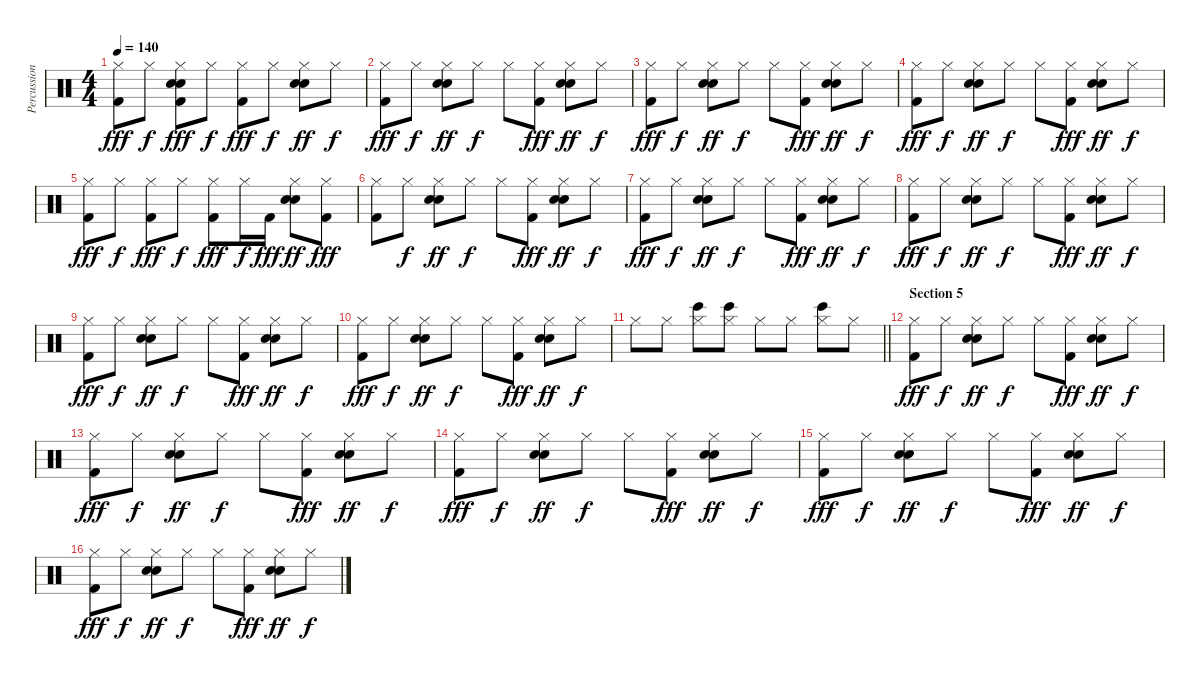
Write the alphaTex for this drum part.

\track ("Percussion" "Percussion") {instrument percussion}
\staff {score}
\articulation defaults
\ts (4 4)
\tempo 140
\clef neutral
\ks c
("Hi-Hat (closed)" "Kick (hit) 2").8{dy fff} "Hi-Hat (closed)".8{dy f} ("Hi-Hat (closed)" "Electric Snare (hit)" "Snare (hit) 2" "Kick (hit) 2").8{dy fff} "Hi-Hat (closed)".8{dy f} ("Hi-Hat (closed)" "Kick (hit) 2").8{dy fff} "Hi-Hat (closed)".8{dy f} ("Hi-Hat (closed)" "Electric Snare (hit)" "Snare (hit) 2").8{dy ff} "Hi-Hat (closed)".8{dy f} |
("Hi-Hat (closed)" "Kick (hit) 2").8{dy fff} "Hi-Hat (closed)".8{dy f} ("Hi-Hat (closed)" "Electric Snare (hit)" "Snare (hit) 2").8{dy ff} "Hi-Hat (closed)".8{dy f} "Hi-Hat (closed)".8 ("Hi-Hat (closed)" "Kick (hit) 2").8{dy fff} ("Hi-Hat (closed)" "Electric Snare (hit)" "Snare (hit) 2").8{dy ff} "Hi-Hat (closed)".8{dy f} |
("Hi-Hat (closed)" "Kick (hit) 2").8{dy fff} "Hi-Hat (closed)".8{dy f} ("Hi-Hat (closed)" "Electric Snare (hit)" "Snare (hit) 2").8{dy ff} "Hi-Hat (closed)".8{dy f} "Hi-Hat (closed)".8 ("Hi-Hat (closed)" "Kick (hit) 2").8{dy fff} ("Hi-Hat (closed)" "Electric Snare (hit)" "Snare (hit) 2").8{dy ff} "Hi-Hat (closed)".8{dy f} |
("Hi-Hat (closed)" "Kick (hit) 2").8{dy fff} "Hi-Hat (closed)".8{dy f} ("Hi-Hat (closed)" "Electric Snare (hit)" "Snare (hit) 2").8{dy ff} "Hi-Hat (closed)".8{dy f} "Hi-Hat (closed)".8 ("Hi-Hat (closed)" "Kick (hit) 2").8{dy fff} ("Hi-Hat (closed)" "Electric Snare (hit)" "Snare (hit) 2").8{dy ff} "Hi-Hat (closed)".8{dy f} |
("Hi-Hat (closed)" "Kick (hit) 2").8{dy fff} "Hi-Hat (closed)".8{dy f} ("Hi-Hat (closed)" "Kick (hit) 2").8{dy fff} "Hi-Hat (closed)".8{dy f} ("Hi-Hat (closed)" "Kick (hit) 2").8{dy fff} "Hi-Hat (closed)".16{dy f} "Kick (hit) 2".16{dy fff} ("Hi-Hat (closed)" "Electric Snare (hit)" "Snare (hit) 2").8{dy ff} ("Hi-Hat (closed)" "Kick (hit) 2").8{dy fff} |
("Hi-Hat (closed)" "Kick (hit) 2").8 "Hi-Hat (closed)".8{dy f} ("Hi-Hat (closed)" "Electric Snare (hit)" "Snare (hit) 2").8{dy ff} "Hi-Hat (closed)".8{dy f} "Hi-Hat (closed)".8 ("Hi-Hat (closed)" "Kick (hit) 2").8{dy fff} ("Hi-Hat (closed)" "Electric Snare (hit)" "Snare (hit) 2").8{dy ff} "Hi-Hat (closed)".8{dy f} |
("Hi-Hat (closed)" "Kick (hit) 2").8{dy fff} "Hi-Hat (closed)".8{dy f} ("Hi-Hat (closed)" "Electric Snare (hit)" "Snare (hit) 2").8{dy ff} "Hi-Hat (closed)".8{dy f} "Hi-Hat (closed)".8 ("Hi-Hat (closed)" "Kick (hit) 2").8{dy fff} ("Hi-Hat (closed)" "Electric Snare (hit)" "Snare (hit) 2").8{dy ff} "Hi-Hat (closed)".8{dy f} |
("Hi-Hat (closed)" "Kick (hit) 2").8{dy fff} "Hi-Hat (closed)".8{dy f} ("Hi-Hat (closed)" "Electric Snare (hit)" "Snare (hit) 2").8{dy ff} "Hi-Hat (closed)".8{dy f} "Hi-Hat (closed)".8 ("Hi-Hat (closed)" "Kick (hit) 2").8{dy fff} ("Hi-Hat (closed)" "Electric Snare (hit)" "Snare (hit) 2").8{dy ff} "Hi-Hat (closed)".8{dy f} |
("Hi-Hat (closed)" "Kick (hit) 2").8{dy fff} "Hi-Hat (closed)".8{dy f} ("Hi-Hat (closed)" "Electric Snare (hit)" "Snare (hit) 2").8{dy ff} "Hi-Hat (closed)".8{dy f} "Hi-Hat (closed)".8 ("Hi-Hat (closed)" "Kick (hit) 2").8{dy fff} ("Hi-Hat (closed)" "Electric Snare (hit)" "Snare (hit) 2").8{dy ff} "Hi-Hat (closed)".8{dy f} |
("Hi-Hat (closed)" "Kick (hit) 2").8{dy fff} "Hi-Hat (closed)".8{dy f} ("Hi-Hat (closed)" "Electric Snare (hit)" "Snare (hit) 2").8{dy ff} "Hi-Hat (closed)".8{dy f} "Hi-Hat (closed)".8 ("Hi-Hat (closed)" "Kick (hit) 2").8{dy fff} ("Hi-Hat (closed)" "Electric Snare (hit)" "Snare (hit) 2").8{dy ff} "Hi-Hat (closed)".8{dy f} |
\barLineRight lightlight "Hi-Hat (closed)".8 "Hi-Hat (closed)".8
("Hi-Hat (closed)" "Bongo High (hit)").8 ("Hi-Hat (closed)" "Bongo High (hit)").8 "Hi-Hat (closed)".8 "Hi-Hat (closed)".8 ("Hi-Hat (closed)" "Bongo High (hit)").8 "Hi-Hat (closed)".8 |
\section ("" "Section 5")
("Hi-Hat (closed)" "Kick (hit) 2").8{dy fff} "Hi-Hat (closed)".8{dy f} ("Hi-Hat (closed)" "Electric Snare (hit)" "Snare (hit) 2").8{dy ff} "Hi-Hat (closed)".8{dy f} "Hi-Hat (closed)".8 ("Hi-Hat (closed)" "Kick (hit) 2").8{dy fff} ("Hi-Hat (closed)" "Electric Snare (hit)" "Snare (hit) 2").8{dy ff} "Hi-Hat (closed)".8{dy f} |
("Hi-Hat (closed)" "Kick (hit) 2").8{dy fff} "Hi-Hat (closed)".8{dy f} ("Hi-Hat (closed)" "Electric Snare (hit)" "Snare (hit) 2").8{dy ff} "Hi-Hat (closed)".8{dy f} "Hi-Hat (closed)".8 ("Hi-Hat (closed)" "Kick (hit) 2").8{dy fff} ("Hi-Hat (closed)" "Electric Snare (hit)" "Snare (hit) 2").8{dy ff} "Hi-Hat (closed)".8{dy f} |
("Hi-Hat (closed)" "Kick (hit) 2").8{dy fff} "Hi-Hat (closed)".8{dy f} ("Hi-Hat (closed)" "Electric Snare (hit)" "Snare (hit) 2").8{dy ff} "Hi-Hat (closed)".8{dy f} "Hi-Hat (closed)".8 ("Hi-Hat (closed)" "Kick (hit) 2").8{dy fff} ("Hi-Hat (closed)" "Electric Snare (hit)" "Snare (hit) 2").8{dy ff} "Hi-Hat (closed)".8{dy f} |
("Hi-Hat (closed)" "Kick (hit) 2").8{dy fff} "Hi-Hat (closed)".8{dy f} ("Hi-Hat (closed)" "Electric Snare (hit)" "Snare (hit) 2").8{dy ff} "Hi-Hat (closed)".8{dy f} "Hi-Hat (closed)".8 ("Hi-Hat (closed)" "Kick (hit) 2").8{dy fff} ("Hi-Hat (closed)" "Electric Snare (hit)" "Snare (hit) 2").8{dy ff} "Hi-Hat (closed)".8{dy f} |
("Hi-Hat (closed)" "Kick (hit) 2").8{dy fff} "Hi-Hat (closed)".8{dy f} ("Hi-Hat (closed)" "Electric Snare (hit)" "Snare (hit) 2").8{dy ff} "Hi-Hat (closed)".8{dy f} "Hi-Hat (closed)".8 ("Hi-Hat (closed)" "Kick (hit) 2").8{dy fff} ("Hi-Hat (closed)" "Electric Snare (hit)" "Snare (hit) 2").8{dy ff} "Hi-Hat (closed)".8{dy f}
